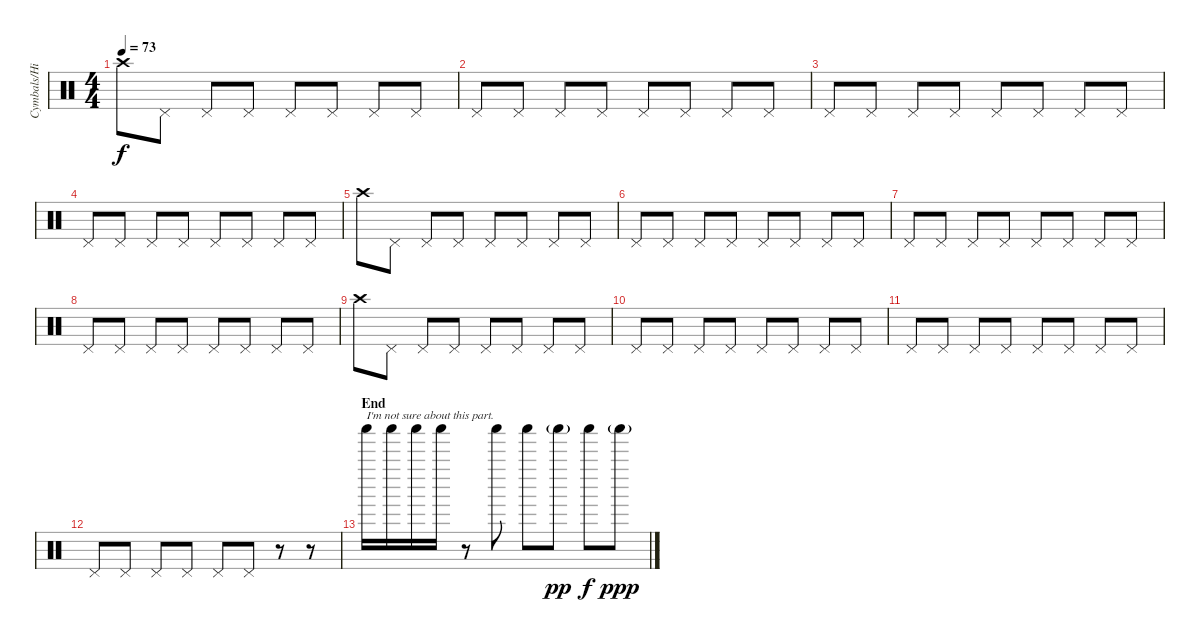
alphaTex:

\track ("Cymbals/Hi-hat" "Cymbals/Hi") {instrument percussion}
\staff {score}
\articulation defaults
\ts (4 4)
\tempo 73
\clef neutral
\ks c "Crash high (hit)".8{dy f} "Pedal Hi-Hat (hit)".8 "Pedal Hi-Hat (hit)".8 "Pedal Hi-Hat (hit)".8 "Pedal Hi-Hat (hit)".8 "Pedal Hi-Hat (hit)".8 "Pedal Hi-Hat (hit)".8 "Pedal Hi-Hat (hit)".8
|
"Pedal Hi-Hat (hit)".8 "Pedal Hi-Hat (hit)".8 "Pedal Hi-Hat (hit)".8 "Pedal Hi-Hat (hit)".8 "Pedal Hi-Hat (hit)".8 "Pedal Hi-Hat (hit)".8 "Pedal Hi-Hat (hit)".8 "Pedal Hi-Hat (hit)".8 |
"Pedal Hi-Hat (hit)".8 "Pedal Hi-Hat (hit)".8 "Pedal Hi-Hat (hit)".8 "Pedal Hi-Hat (hit)".8 "Pedal Hi-Hat (hit)".8 "Pedal Hi-Hat (hit)".8 "Pedal Hi-Hat (hit)".8 "Pedal Hi-Hat (hit)".8 |
"Pedal Hi-Hat (hit)".8 "Pedal Hi-Hat (hit)".8 "Pedal Hi-Hat (hit)".8 "Pedal Hi-Hat (hit)".8 "Pedal Hi-Hat (hit)".8 "Pedal Hi-Hat (hit)".8 "Pedal Hi-Hat (hit)".8 "Pedal Hi-Hat (hit)".8 |
"Crash high (hit)".8 "Pedal Hi-Hat (hit)".8 "Pedal Hi-Hat (hit)".8 "Pedal Hi-Hat (hit)".8 "Pedal Hi-Hat (hit)".8 "Pedal Hi-Hat (hit)".8 "Pedal Hi-Hat (hit)".8 "Pedal Hi-Hat (hit)".8 |
"Pedal Hi-Hat (hit)".8 "Pedal Hi-Hat (hit)".8 "Pedal Hi-Hat (hit)".8 "Pedal Hi-Hat (hit)".8 "Pedal Hi-Hat (hit)".8 "Pedal Hi-Hat (hit)".8 "Pedal Hi-Hat (hit)".8 "Pedal Hi-Hat (hit)".8 |
"Pedal Hi-Hat (hit)".8 "Pedal Hi-Hat (hit)".8 "Pedal Hi-Hat (hit)".8 "Pedal Hi-Hat (hit)".8 "Pedal Hi-Hat (hit)".8 "Pedal Hi-Hat (hit)".8 "Pedal Hi-Hat (hit)".8 "Pedal Hi-Hat (hit)".8 |
"Pedal Hi-Hat (hit)".8 "Pedal Hi-Hat (hit)".8 "Pedal Hi-Hat (hit)".8 "Pedal Hi-Hat (hit)".8 "Pedal Hi-Hat (hit)".8 "Pedal Hi-Hat (hit)".8 "Pedal Hi-Hat (hit)".8 "Pedal Hi-Hat (hit)".8 |
"Crash high (hit)".8 "Pedal Hi-Hat (hit)".8 "Pedal Hi-Hat (hit)".8 "Pedal Hi-Hat (hit)".8 "Pedal Hi-Hat (hit)".8 "Pedal Hi-Hat (hit)".8 "Pedal Hi-Hat (hit)".8 "Pedal Hi-Hat (hit)".8 |
"Pedal Hi-Hat (hit)".8 "Pedal Hi-Hat (hit)".8 "Pedal Hi-Hat (hit)".8 "Pedal Hi-Hat (hit)".8 "Pedal Hi-Hat (hit)".8 "Pedal Hi-Hat (hit)".8 "Pedal Hi-Hat (hit)".8 "Pedal Hi-Hat (hit)".8 |
"Pedal Hi-Hat (hit)".8 "Pedal Hi-Hat (hit)".8 "Pedal Hi-Hat (hit)".8 "Pedal Hi-Hat (hit)".8 "Pedal Hi-Hat (hit)".8 "Pedal Hi-Hat (hit)".8 "Pedal Hi-Hat (hit)".8 "Pedal Hi-Hat (hit)".8 |
"Pedal Hi-Hat (hit)".8 "Pedal Hi-Hat (hit)".8 "Pedal Hi-Hat (hit)".8 "Pedal Hi-Hat (hit)".8 "Pedal Hi-Hat (hit)".8 "Pedal Hi-Hat (hit)".8 r.8 r.8 |
\section ("" "End")
"Shaker (hit)".16{txt "I'm not sure about this part."} "Shaker (hit)".16 "Shaker (hit)".16 "Shaker (hit)".16 r.8 "Shaker (hit)".8 "Shaker (hit)".8 "Shaker (hit)"{g}.8{dy pp} "Shaker (hit)".8{dy f} "Shaker (hit)"{g}.8{dy ppp}
